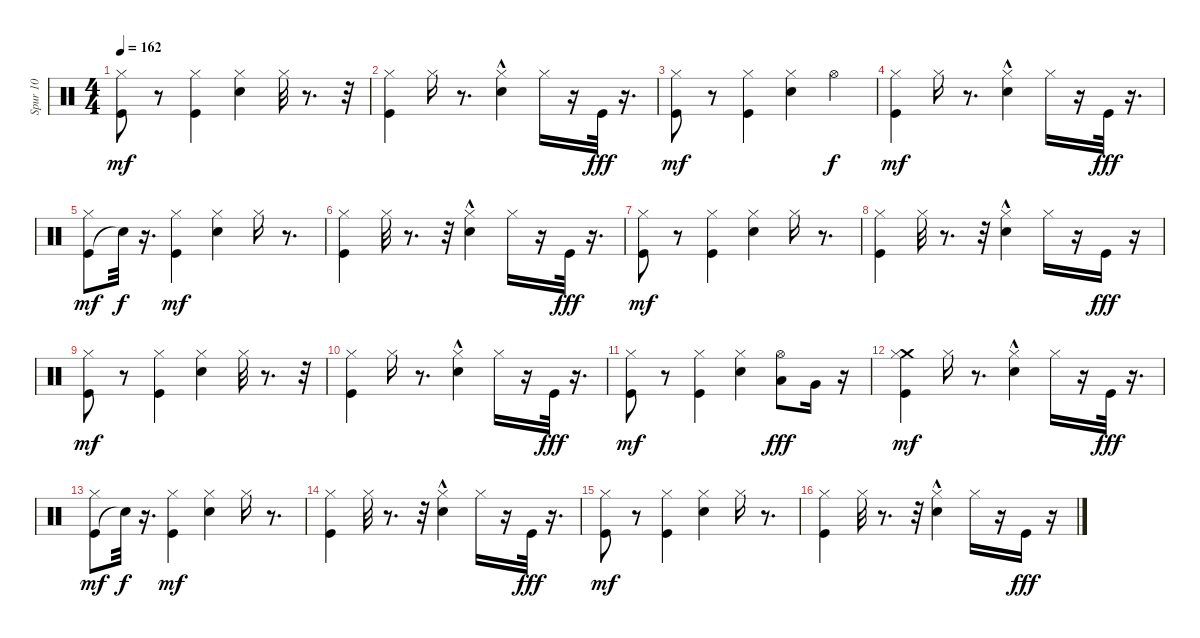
\track ("Spur 10" "Spur 10") {instrument percussion}
\staff {score}
\articulation defaults
\ts (4 4)
\tempo 162
\clef neutral
\ks c
("Kick (hit)" "Hi-Hat (closed)").8{dy mf} r.8 ("Kick (hit)" "Hi-Hat (closed)").4 ("Snare (hit) 2" "Hi-Hat (closed)").4 "Hi-Hat (closed)".32 r.8{d} r.32 |
("Kick (hit)" "Hi-Hat (closed)").4 "Hi-Hat (closed)".16 r.8{d} ("Snare (hit) 2"{hac} "Hi-Hat (closed)").4 "Hi-Hat (closed)".16 r.16 "Kick (hit)".32{dy fff} r.16{d} |
("Kick (hit)" "Hi-Hat (closed)").8{dy mf} r.8 ("Kick (hit)" "Hi-Hat (closed)").4 ("Snare (hit) 2" "Hi-Hat (closed)").4 "Hi-Hat (open)".4{dy f} |
("Kick (hit)" "Hi-Hat (closed)").4{dy mf} "Hi-Hat (closed)".16 r.8{d} ("Snare (hit) 2"{hac} "Hi-Hat (closed)").4 "Hi-Hat (closed)".16 r.16 "Kick (hit)".32{dy fff} r.16{d} |
("Kick (hit)" "Hi-Hat (closed)").8{dy mf} "Snare (hit)"{t}.32{dy f} r.16{d} ("Kick (hit)" "Hi-Hat (closed)").4{dy mf} ("Snare (hit) 2" "Hi-Hat (closed)").4 "Hi-Hat (closed)".16 r.8{d} |
("Kick (hit)" "Hi-Hat (closed)").4 "Hi-Hat (closed)".32 r.8{d} r.32 ("Snare (hit) 2"{hac} "Hi-Hat (closed)").4 "Hi-Hat (closed)".16 r.16 "Kick (hit)".32{dy fff} r.16{d} |
("Kick (hit)" "Hi-Hat (closed)").8{dy mf} r.8 ("Kick (hit)" "Hi-Hat (closed)").4 ("Snare (hit) 2" "Hi-Hat (closed)").4 "Hi-Hat (closed)".16 r.8{d} |
("Kick (hit)" "Hi-Hat (closed)").4 "Hi-Hat (closed)".32 r.8{d} r.32 ("Snare (hit) 2"{hac} "Hi-Hat (closed)").4 "Hi-Hat (closed)".16 r.16 "Kick (hit)".16{dy fff} r.16 |
("Kick (hit)" "Hi-Hat (closed)").8{dy mf} r.8 ("Kick (hit)" "Hi-Hat (closed)").4 ("Snare (hit) 2" "Hi-Hat (closed)").4 "Hi-Hat (closed)".32 r.8{d} r.32 |
("Kick (hit)" "Hi-Hat (closed)").4 "Hi-Hat (closed)".16 r.8{d} ("Snare (hit) 2"{hac} "Hi-Hat (closed)").4 "Hi-Hat (closed)".16 r.16 "Kick (hit)".32{dy fff} r.16{d} |
("Kick (hit)" "Hi-Hat (closed)").8{dy mf} r.8 ("Kick (hit)" "Hi-Hat (closed)").4 ("Snare (hit) 2" "Hi-Hat (closed)").4 ("Low Tom (hit)" "Hi-Hat (open)").8{dy fff} "Very Low Tom (hit)".16 r.16 |
("Kick (hit)" "Crash medium (hit)" "Hi-Hat (closed)").4{dy mf} "Hi-Hat (closed)".16 r.8{d} ("Snare (hit) 2"{hac} "Hi-Hat (closed)").4 "Hi-Hat (closed)".16 r.16 "Kick (hit)".32{dy fff} r.16{d} |
("Kick (hit)" "Hi-Hat (closed)").8{dy mf} "Snare (hit)"{t}.32{dy f} r.16{d} ("Kick (hit)" "Hi-Hat (closed)").4{dy mf} ("Snare (hit) 2" "Hi-Hat (closed)").4 "Hi-Hat (closed)".16 r.8{d} |
("Kick (hit)" "Hi-Hat (closed)").4 "Hi-Hat (closed)".32 r.8{d} r.32 ("Snare (hit) 2"{hac} "Hi-Hat (closed)").4 "Hi-Hat (closed)".16 r.16 "Kick (hit)".32{dy fff} r.16{d} |
("Kick (hit)" "Hi-Hat (closed)").8{dy mf} r.8 ("Kick (hit)" "Hi-Hat (closed)").4 ("Snare (hit) 2" "Hi-Hat (closed)").4 "Hi-Hat (closed)".16 r.8{d} |
("Kick (hit)" "Hi-Hat (closed)").4 "Hi-Hat (closed)".32 r.8{d} r.32 ("Snare (hit) 2"{hac} "Hi-Hat (closed)").4 "Hi-Hat (closed)".16 r.16 "Kick (hit)".16{dy fff} r.16
